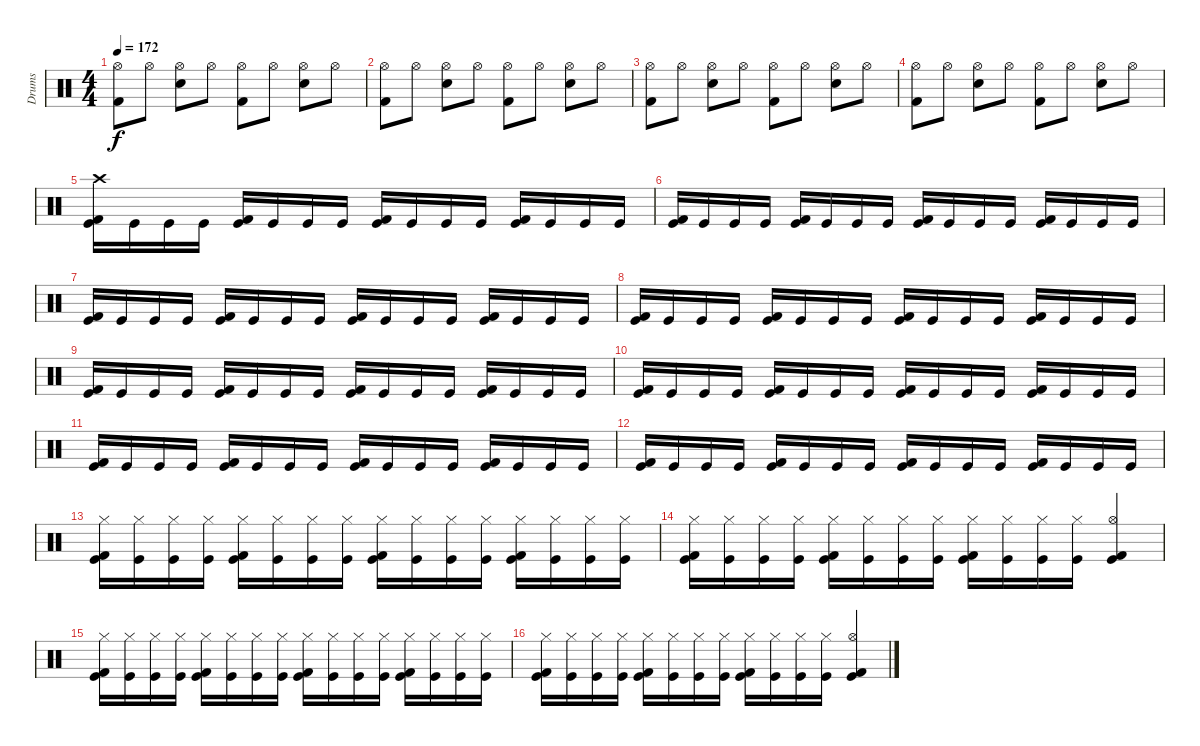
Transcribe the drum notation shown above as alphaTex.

\track ("Drums" "Drums") {instrument percussion}
\staff {score}
\articulation defaults
\ts (4 4)
\tempo 172
\clef neutral
\ks c
("Kick (hit) 2" "Hi-Hat (open)").8{dy f} "Hi-Hat (open)".8 ("Electric Snare (hit)" "Hi-Hat (open)").8 "Hi-Hat (open)".8 ("Kick (hit) 2" "Hi-Hat (open)").8 "Hi-Hat (open)".8 ("Electric Snare (hit)" "Hi-Hat (open)").8 "Hi-Hat (open)".8 |
("Kick (hit) 2" "Hi-Hat (open)").8 "Hi-Hat (open)".8 ("Electric Snare (hit)" "Hi-Hat (open)").8 "Hi-Hat (open)".8 ("Kick (hit) 2" "Hi-Hat (open)").8 "Hi-Hat (open)".8 ("Electric Snare (hit)" "Hi-Hat (open)").8 "Hi-Hat (open)".8 |
("Kick (hit) 2" "Hi-Hat (open)").8 "Hi-Hat (open)".8 ("Electric Snare (hit)" "Hi-Hat (open)").8 "Hi-Hat (open)".8 ("Kick (hit) 2" "Hi-Hat (open)").8 "Hi-Hat (open)".8 ("Electric Snare (hit)" "Hi-Hat (open)").8 "Hi-Hat (open)".8 |
("Kick (hit) 2" "Hi-Hat (open)").8 "Hi-Hat (open)".8 ("Electric Snare (hit)" "Hi-Hat (open)").8 "Hi-Hat (open)".8 ("Kick (hit) 2" "Hi-Hat (open)").8 "Hi-Hat (open)".8 ("Electric Snare (hit)" "Hi-Hat (open)").8 "Hi-Hat (open)".8 |
("Kick (hit) 2" "Kick (hit)" "Crash high (hit)").16 "Kick (hit)".16 "Kick (hit)".16 "Kick (hit)".16 ("Kick (hit) 2" "Kick (hit)").16 "Kick (hit)".16 "Kick (hit)".16 "Kick (hit)".16 ("Kick (hit) 2" "Kick (hit)").16 "Kick (hit)".16 "Kick (hit)".16 "Kick (hit)".16 ("Kick (hit) 2" "Kick (hit)").16 "Kick (hit)".16 "Kick (hit)".16 "Kick (hit)".16 |
("Kick (hit) 2" "Kick (hit)").16 "Kick (hit)".16 "Kick (hit)".16 "Kick (hit)".16 ("Kick (hit) 2" "Kick (hit)").16 "Kick (hit)".16 "Kick (hit)".16 "Kick (hit)".16 ("Kick (hit) 2" "Kick (hit)").16 "Kick (hit)".16 "Kick (hit)".16 "Kick (hit)".16 ("Kick (hit) 2" "Kick (hit)").16 "Kick (hit)".16 "Kick (hit)".16 "Kick (hit)".16 |
("Kick (hit) 2" "Kick (hit)").16 "Kick (hit)".16 "Kick (hit)".16 "Kick (hit)".16 ("Kick (hit) 2" "Kick (hit)").16 "Kick (hit)".16 "Kick (hit)".16 "Kick (hit)".16 ("Kick (hit) 2" "Kick (hit)").16 "Kick (hit)".16 "Kick (hit)".16 "Kick (hit)".16 ("Kick (hit) 2" "Kick (hit)").16 "Kick (hit)".16 "Kick (hit)".16 "Kick (hit)".16 |
("Kick (hit) 2" "Kick (hit)").16 "Kick (hit)".16 "Kick (hit)".16 "Kick (hit)".16 ("Kick (hit) 2" "Kick (hit)").16 "Kick (hit)".16 "Kick (hit)".16 "Kick (hit)".16 ("Kick (hit) 2" "Kick (hit)").16 "Kick (hit)".16 "Kick (hit)".16 "Kick (hit)".16 ("Kick (hit) 2" "Kick (hit)").16 "Kick (hit)".16 "Kick (hit)".16 "Kick (hit)".16 |
("Kick (hit) 2" "Kick (hit)").16 "Kick (hit)".16 "Kick (hit)".16 "Kick (hit)".16 ("Kick (hit) 2" "Kick (hit)").16 "Kick (hit)".16 "Kick (hit)".16 "Kick (hit)".16 ("Kick (hit) 2" "Kick (hit)").16 "Kick (hit)".16 "Kick (hit)".16 "Kick (hit)".16 ("Kick (hit) 2" "Kick (hit)").16 "Kick (hit)".16 "Kick (hit)".16 "Kick (hit)".16 |
("Kick (hit) 2" "Kick (hit)").16 "Kick (hit)".16 "Kick (hit)".16 "Kick (hit)".16 ("Kick (hit) 2" "Kick (hit)").16 "Kick (hit)".16 "Kick (hit)".16 "Kick (hit)".16 ("Kick (hit) 2" "Kick (hit)").16 "Kick (hit)".16 "Kick (hit)".16 "Kick (hit)".16 ("Kick (hit) 2" "Kick (hit)").16 "Kick (hit)".16 "Kick (hit)".16 "Kick (hit)".16 |
("Kick (hit) 2" "Kick (hit)").16 "Kick (hit)".16 "Kick (hit)".16 "Kick (hit)".16 ("Kick (hit) 2" "Kick (hit)").16 "Kick (hit)".16 "Kick (hit)".16 "Kick (hit)".16 ("Kick (hit) 2" "Kick (hit)").16 "Kick (hit)".16 "Kick (hit)".16 "Kick (hit)".16 ("Kick (hit) 2" "Kick (hit)").16 "Kick (hit)".16 "Kick (hit)".16 "Kick (hit)".16 |
("Kick (hit) 2" "Kick (hit)").16 "Kick (hit)".16 "Kick (hit)".16 "Kick (hit)".16 ("Kick (hit) 2" "Kick (hit)").16 "Kick (hit)".16 "Kick (hit)".16 "Kick (hit)".16 ("Kick (hit) 2" "Kick (hit)").16 "Kick (hit)".16 "Kick (hit)".16 "Kick (hit)".16 ("Kick (hit) 2" "Kick (hit)").16 "Kick (hit)".16 "Kick (hit)".16 "Kick (hit)".16 |
("Kick (hit) 2" "Kick (hit)" "Hi-Hat (closed)").16 ("Kick (hit)" "Hi-Hat (closed)").16 ("Kick (hit)" "Hi-Hat (closed)").16 ("Kick (hit)" "Hi-Hat (closed)").16 ("Kick (hit) 2" "Kick (hit)" "Hi-Hat (closed)").16 ("Kick (hit)" "Hi-Hat (closed)").16 ("Kick (hit)" "Hi-Hat (closed)").16 ("Kick (hit)" "Hi-Hat (closed)").16 ("Kick (hit) 2" "Kick (hit)" "Hi-Hat (closed)").16 ("Kick (hit)" "Hi-Hat (closed)").16 ("Kick (hit)" "Hi-Hat (closed)").16 ("Kick (hit)" "Hi-Hat (closed)").16 ("Kick (hit) 2" "Kick (hit)" "Hi-Hat (closed)").16 ("Kick (hit)" "Hi-Hat (closed)").16 ("Kick (hit)" "Hi-Hat (closed)").16 ("Kick (hit)" "Hi-Hat (closed)").16 |
("Kick (hit) 2" "Kick (hit)" "Hi-Hat (closed)").16 ("Kick (hit)" "Hi-Hat (closed)").16 ("Kick (hit)" "Hi-Hat (closed)").16 ("Kick (hit)" "Hi-Hat (closed)").16 ("Kick (hit) 2" "Kick (hit)" "Hi-Hat (closed)").16 ("Kick (hit)" "Hi-Hat (closed)").16 ("Kick (hit)" "Hi-Hat (closed)").16 ("Kick (hit)" "Hi-Hat (closed)").16 ("Kick (hit) 2" "Kick (hit)" "Hi-Hat (closed)").16 ("Kick (hit)" "Hi-Hat (closed)").16 ("Kick (hit)" "Hi-Hat (closed)").16 ("Kick (hit)" "Hi-Hat (closed)").16 ("Kick (hit) 2" "Kick (hit)" "Hi-Hat (open)").4 |
("Kick (hit) 2" "Kick (hit)" "Hi-Hat (closed)").16 ("Kick (hit)" "Hi-Hat (closed)").16 ("Kick (hit)" "Hi-Hat (closed)").16 ("Kick (hit)" "Hi-Hat (closed)").16 ("Kick (hit) 2" "Kick (hit)" "Hi-Hat (closed)").16 ("Kick (hit)" "Hi-Hat (closed)").16 ("Kick (hit)" "Hi-Hat (closed)").16 ("Kick (hit)" "Hi-Hat (closed)").16 ("Kick (hit) 2" "Kick (hit)" "Hi-Hat (closed)").16 ("Kick (hit)" "Hi-Hat (closed)").16 ("Kick (hit)" "Hi-Hat (closed)").16 ("Kick (hit)" "Hi-Hat (closed)").16 ("Kick (hit) 2" "Kick (hit)" "Hi-Hat (closed)").16 ("Kick (hit)" "Hi-Hat (closed)").16 ("Kick (hit)" "Hi-Hat (closed)").16 ("Kick (hit)" "Hi-Hat (closed)").16 |
("Kick (hit) 2" "Kick (hit)" "Hi-Hat (closed)").16 ("Kick (hit)" "Hi-Hat (closed)").16 ("Kick (hit)" "Hi-Hat (closed)").16 ("Kick (hit)" "Hi-Hat (closed)").16 ("Kick (hit) 2" "Kick (hit)" "Hi-Hat (closed)").16 ("Kick (hit)" "Hi-Hat (closed)").16 ("Kick (hit)" "Hi-Hat (closed)").16 ("Kick (hit)" "Hi-Hat (closed)").16 ("Kick (hit) 2" "Kick (hit)" "Hi-Hat (closed)").16 ("Kick (hit)" "Hi-Hat (closed)").16 ("Kick (hit)" "Hi-Hat (closed)").16 ("Kick (hit)" "Hi-Hat (closed)").16 ("Kick (hit) 2" "Kick (hit)" "Hi-Hat (open)").4
